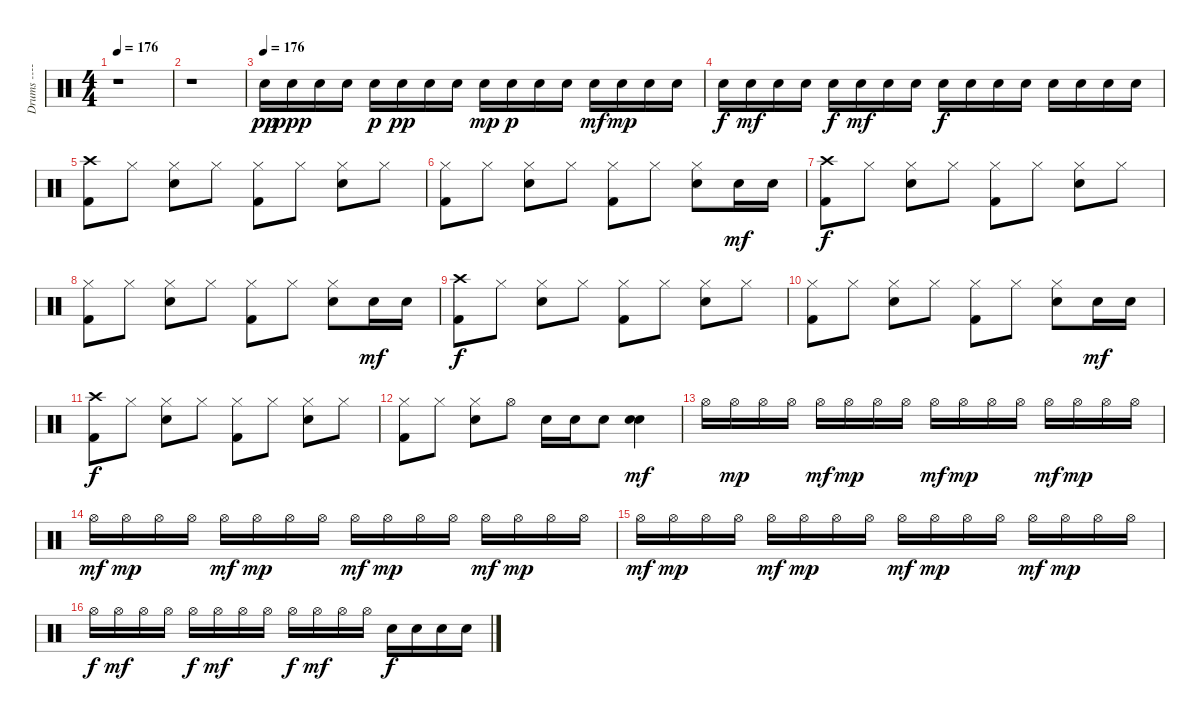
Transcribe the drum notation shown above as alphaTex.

\track ("Drums ----- Larry Mullen Junior" "Drums ----") {instrument percussion}
\staff {score}
\articulation defaults
\ts (4 4)
\tempo 176
\tempo 148
\tempo 176
\clef neutral
\ks c
r.1{dy pp} |
r.1 |
\tempo (176)
"Electric Snare (hit)".16 "Electric Snare (hit)".16{dy ppp} "Electric Snare (hit)".16 "Electric Snare (hit)".16 "Electric Snare (hit)".16{dy p} "Electric Snare (hit)".16{dy pp} "Electric Snare (hit)".16 "Electric Snare (hit)".16 "Electric Snare (hit)".16{dy mp} "Electric Snare (hit)".16{dy p} "Electric Snare (hit)".16 "Electric Snare (hit)".16 "Electric Snare (hit)".16{dy mf} "Electric Snare (hit)".16{dy mp} "Electric Snare (hit)".16 "Electric Snare (hit)".16 |
"Electric Snare (hit)".16{dy f} "Electric Snare (hit)".16{dy mf} "Electric Snare (hit)".16 "Electric Snare (hit)".16 "Electric Snare (hit)".16{dy f} "Electric Snare (hit)".16{dy mf} "Electric Snare (hit)".16 "Electric Snare (hit)".16 "Electric Snare (hit)".16{dy f} "Electric Snare (hit)".16 "Electric Snare (hit)".16 "Electric Snare (hit)".16 "Electric Snare (hit)".16 "Electric Snare (hit)".16 "Electric Snare (hit)".16 "Electric Snare (hit)".16 |
("Kick (hit) 2" "Crash high (hit)").8 "Hi-Hat (closed)".8 ("Electric Snare (hit)" "Hi-Hat (closed)").8 "Hi-Hat (closed)".8 ("Kick (hit) 2" "Hi-Hat (closed)").8 "Hi-Hat (closed)".8 ("Electric Snare (hit)" "Hi-Hat (closed)").8 "Hi-Hat (closed)".8 |
("Kick (hit) 2" "Hi-Hat (closed)").8 "Hi-Hat (closed)".8 ("Electric Snare (hit)" "Hi-Hat (closed)").8 "Hi-Hat (closed)".8 ("Kick (hit) 2" "Hi-Hat (closed)").8 "Hi-Hat (closed)".8 ("Electric Snare (hit)" "Hi-Hat (closed)").8 "Electric Snare (hit)".16{dy mf} "Electric Snare (hit)".16 |
("Kick (hit) 2" "Crash high (hit)").8{dy f} "Hi-Hat (closed)".8 ("Electric Snare (hit)" "Hi-Hat (closed)").8 "Hi-Hat (closed)".8 ("Kick (hit) 2" "Hi-Hat (closed)").8 "Hi-Hat (closed)".8 ("Electric Snare (hit)" "Hi-Hat (closed)").8 "Hi-Hat (closed)".8 |
("Kick (hit) 2" "Hi-Hat (closed)").8 "Hi-Hat (closed)".8 ("Electric Snare (hit)" "Hi-Hat (closed)").8 "Hi-Hat (closed)".8 ("Kick (hit) 2" "Hi-Hat (closed)").8 "Hi-Hat (closed)".8 ("Electric Snare (hit)" "Hi-Hat (closed)").8 "Electric Snare (hit)".16{dy mf} "Electric Snare (hit)".16 |
("Kick (hit) 2" "Crash high (hit)").8{dy f} "Hi-Hat (closed)".8 ("Electric Snare (hit)" "Hi-Hat (closed)").8 "Hi-Hat (closed)".8 ("Kick (hit) 2" "Hi-Hat (closed)").8 "Hi-Hat (closed)".8 ("Electric Snare (hit)" "Hi-Hat (closed)").8 "Hi-Hat (closed)".8 |
("Kick (hit) 2" "Hi-Hat (closed)").8 "Hi-Hat (closed)".8 ("Electric Snare (hit)" "Hi-Hat (closed)").8 "Hi-Hat (closed)".8 ("Kick (hit) 2" "Hi-Hat (closed)").8 "Hi-Hat (closed)".8 ("Electric Snare (hit)" "Hi-Hat (closed)").8 "Electric Snare (hit)".16{dy mf} "Electric Snare (hit)".16 |
("Kick (hit) 2" "Crash high (hit)").8{dy f} "Hi-Hat (closed)".8 ("Electric Snare (hit)" "Hi-Hat (closed)").8 "Hi-Hat (closed)".8 ("Kick (hit) 2" "Hi-Hat (closed)").8 "Hi-Hat (closed)".8 ("Electric Snare (hit)" "Hi-Hat (closed)").8 "Hi-Hat (closed)".8 |
("Kick (hit) 2" "Hi-Hat (closed)").8 "Hi-Hat (closed)".8 ("Electric Snare (hit)" "Hi-Hat (closed)").8 "Hi-Hat (open)".8 "Electric Snare (hit)".16 "Electric Snare (hit)".16 "Electric Snare (hit)".8 ("Electric Snare (hit)" "Electric Snare (hit)").4{dy mf} |
"Hi-Hat (open)".16 "Hi-Hat (open)".16{dy mp} "Hi-Hat (open)".16 "Hi-Hat (open)".16 "Hi-Hat (open)".16{dy mf} "Hi-Hat (open)".16{dy mp} "Hi-Hat (open)".16 "Hi-Hat (open)".16 "Hi-Hat (open)".16{dy mf} "Hi-Hat (open)".16{dy mp} "Hi-Hat (open)".16 "Hi-Hat (open)".16 "Hi-Hat (open)".16{dy mf} "Hi-Hat (open)".16{dy mp} "Hi-Hat (open)".16 "Hi-Hat (open)".16 |
"Hi-Hat (open)".16{dy mf} "Hi-Hat (open)".16{dy mp} "Hi-Hat (open)".16 "Hi-Hat (open)".16 "Hi-Hat (open)".16{dy mf} "Hi-Hat (open)".16{dy mp} "Hi-Hat (open)".16 "Hi-Hat (open)".16 "Hi-Hat (open)".16{dy mf} "Hi-Hat (open)".16{dy mp} "Hi-Hat (open)".16 "Hi-Hat (open)".16 "Hi-Hat (open)".16{dy mf} "Hi-Hat (open)".16{dy mp} "Hi-Hat (open)".16 "Hi-Hat (open)".16 |
"Hi-Hat (open)".16{dy mf} "Hi-Hat (open)".16{dy mp} "Hi-Hat (open)".16 "Hi-Hat (open)".16 "Hi-Hat (open)".16{dy mf} "Hi-Hat (open)".16{dy mp} "Hi-Hat (open)".16 "Hi-Hat (open)".16 "Hi-Hat (open)".16{dy mf} "Hi-Hat (open)".16{dy mp} "Hi-Hat (open)".16 "Hi-Hat (open)".16 "Hi-Hat (open)".16{dy mf} "Hi-Hat (open)".16{dy mp} "Hi-Hat (open)".16 "Hi-Hat (open)".16 |
"Hi-Hat (open)".16{dy f} "Hi-Hat (open)".16{dy mf} "Hi-Hat (open)".16 "Hi-Hat (open)".16 "Hi-Hat (open)".16{dy f} "Hi-Hat (open)".16{dy mf} "Hi-Hat (open)".16 "Hi-Hat (open)".16 "Hi-Hat (open)".16{dy f} "Hi-Hat (open)".16{dy mf} "Hi-Hat (open)".16 "Hi-Hat (open)".16 "Electric Snare (hit)".16{dy f} "Electric Snare (hit)".16 "Electric Snare (hit)".16 "Electric Snare (hit)".16
